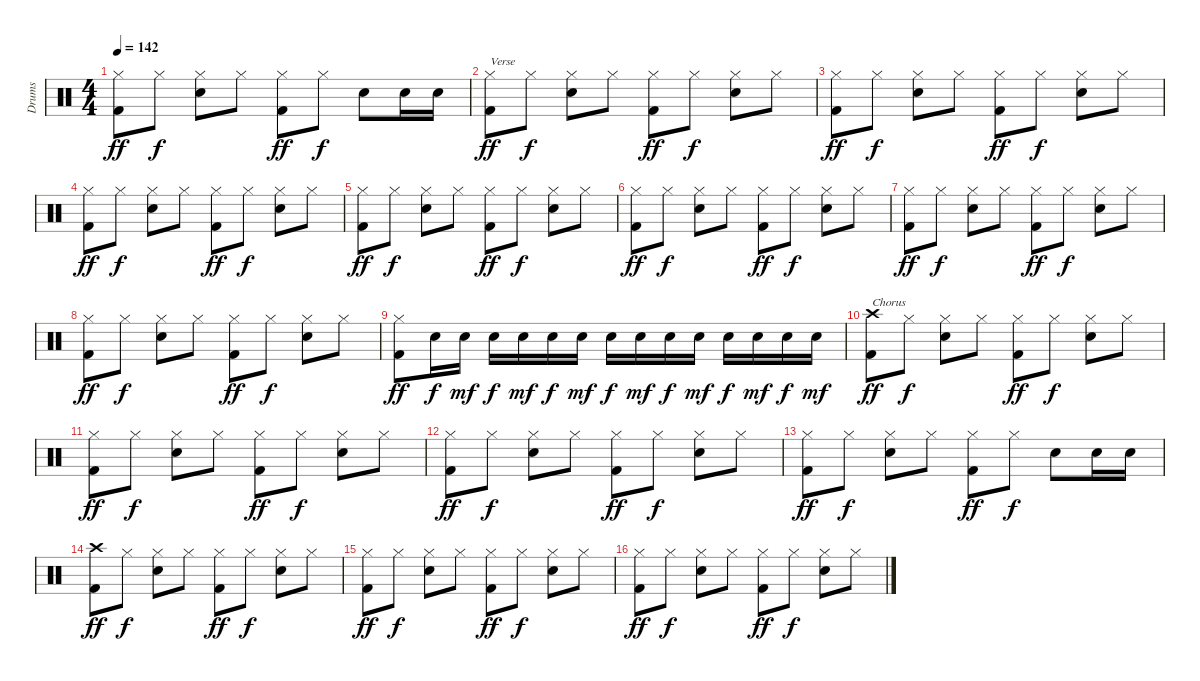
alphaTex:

\track ("Drums" "Drums") {instrument percussion}
\staff {score}
\articulation defaults
\ts (4 4)
\tempo 142
\clef neutral
\ks c
("Hi-Hat (closed)" "Kick (hit) 2").8{dy ff} "Hi-Hat (closed)".8{dy f} ("Hi-Hat (closed)" "Snare (hit) 2").8 "Hi-Hat (closed)".8 ("Hi-Hat (closed)" "Kick (hit) 2").8{dy ff} "Hi-Hat (closed)".8{dy f} "Snare (hit) 2".8 "Snare (hit) 2".16 "Snare (hit) 2".16 |
("Hi-Hat (closed)" "Kick (hit) 2").8{txt "Verse" dy ff} "Hi-Hat (closed)".8{dy f} ("Hi-Hat (closed)" "Snare (hit) 2").8 "Hi-Hat (closed)".8 ("Hi-Hat (closed)" "Kick (hit) 2").8{dy ff} "Hi-Hat (closed)".8{dy f} ("Hi-Hat (closed)" "Snare (hit) 2").8 "Hi-Hat (closed)".8 |
("Hi-Hat (closed)" "Kick (hit) 2").8{dy ff} "Hi-Hat (closed)".8{dy f} ("Hi-Hat (closed)" "Snare (hit) 2").8 "Hi-Hat (closed)".8 ("Hi-Hat (closed)" "Kick (hit) 2").8{dy ff} "Hi-Hat (closed)".8{dy f} ("Hi-Hat (closed)" "Snare (hit) 2").8 "Hi-Hat (closed)".8 |
("Hi-Hat (closed)" "Kick (hit) 2").8{dy ff} "Hi-Hat (closed)".8{dy f} ("Hi-Hat (closed)" "Snare (hit) 2").8 "Hi-Hat (closed)".8 ("Hi-Hat (closed)" "Kick (hit) 2").8{dy ff} "Hi-Hat (closed)".8{dy f} ("Hi-Hat (closed)" "Snare (hit) 2").8 "Hi-Hat (closed)".8 |
("Hi-Hat (closed)" "Kick (hit) 2").8{dy ff} "Hi-Hat (closed)".8{dy f} ("Hi-Hat (closed)" "Snare (hit) 2").8 "Hi-Hat (closed)".8 ("Hi-Hat (closed)" "Kick (hit) 2").8{dy ff} "Hi-Hat (closed)".8{dy f} ("Hi-Hat (closed)" "Snare (hit) 2").8 "Hi-Hat (closed)".8 |
("Hi-Hat (closed)" "Kick (hit) 2").8{dy ff} "Hi-Hat (closed)".8{dy f} ("Hi-Hat (closed)" "Snare (hit) 2").8 "Hi-Hat (closed)".8 ("Hi-Hat (closed)" "Kick (hit) 2").8{dy ff} "Hi-Hat (closed)".8{dy f} ("Hi-Hat (closed)" "Snare (hit) 2").8 "Hi-Hat (closed)".8 |
("Hi-Hat (closed)" "Kick (hit) 2").8{dy ff} "Hi-Hat (closed)".8{dy f} ("Hi-Hat (closed)" "Snare (hit) 2").8 "Hi-Hat (closed)".8 ("Hi-Hat (closed)" "Kick (hit) 2").8{dy ff} "Hi-Hat (closed)".8{dy f} ("Hi-Hat (closed)" "Snare (hit) 2").8 "Hi-Hat (closed)".8 |
("Hi-Hat (closed)" "Kick (hit) 2").8{dy ff} "Hi-Hat (closed)".8{dy f} ("Hi-Hat (closed)" "Snare (hit) 2").8 "Hi-Hat (closed)".8 ("Hi-Hat (closed)" "Kick (hit) 2").8{dy ff} "Hi-Hat (closed)".8{dy f} ("Hi-Hat (closed)" "Snare (hit) 2").8 "Hi-Hat (closed)".8 |
("Hi-Hat (closed)" "Kick (hit) 2").8{dy ff} "Snare (hit) 2".16{dy f} "Snare (hit) 2".16{dy mf} "Snare (hit) 2".16{dy f} "Snare (hit) 2".16{dy mf} "Snare (hit) 2".16{dy f} "Snare (hit) 2".16{dy mf} "Snare (hit) 2".16{dy f} "Snare (hit) 2".16{dy mf} "Snare (hit) 2".16{dy f} "Snare (hit) 2".16{dy mf} "Snare (hit) 2".16{dy f} "Snare (hit) 2".16{dy mf} "Snare (hit) 2".16{dy f} "Snare (hit) 2".16{dy mf} |
("Crash high (hit)" "Kick (hit) 2").8{txt "Chorus" dy ff} "Hi-Hat (closed)".8{dy f} ("Hi-Hat (closed)" "Snare (hit) 2").8 "Hi-Hat (closed)".8 ("Hi-Hat (closed)" "Kick (hit) 2").8{dy ff} "Hi-Hat (closed)".8{dy f} ("Hi-Hat (closed)" "Snare (hit) 2").8 "Hi-Hat (closed)".8 |
("Hi-Hat (closed)" "Kick (hit) 2").8{dy ff} "Hi-Hat (closed)".8{dy f} ("Hi-Hat (closed)" "Snare (hit) 2").8 "Hi-Hat (closed)".8 ("Hi-Hat (closed)" "Kick (hit) 2").8{dy ff} "Hi-Hat (closed)".8{dy f} ("Hi-Hat (closed)" "Snare (hit) 2").8 "Hi-Hat (closed)".8 |
("Hi-Hat (closed)" "Kick (hit) 2").8{dy ff} "Hi-Hat (closed)".8{dy f} ("Hi-Hat (closed)" "Snare (hit) 2").8 "Hi-Hat (closed)".8 ("Hi-Hat (closed)" "Kick (hit) 2").8{dy ff} "Hi-Hat (closed)".8{dy f} ("Hi-Hat (closed)" "Snare (hit) 2").8 "Hi-Hat (closed)".8 |
("Hi-Hat (closed)" "Kick (hit) 2").8{dy ff} "Hi-Hat (closed)".8{dy f} ("Hi-Hat (closed)" "Snare (hit) 2").8 "Hi-Hat (closed)".8 ("Hi-Hat (closed)" "Kick (hit) 2").8{dy ff} "Hi-Hat (closed)".8{dy f} "Snare (hit) 2".8 "Snare (hit) 2".16 "Snare (hit) 2".16 |
("Crash high (hit)" "Kick (hit) 2").8{dy ff} "Hi-Hat (closed)".8{dy f} ("Hi-Hat (closed)" "Snare (hit) 2").8 "Hi-Hat (closed)".8 ("Hi-Hat (closed)" "Kick (hit) 2").8{dy ff} "Hi-Hat (closed)".8{dy f} ("Hi-Hat (closed)" "Snare (hit) 2").8 "Hi-Hat (closed)".8 |
("Hi-Hat (closed)" "Kick (hit) 2").8{dy ff} "Hi-Hat (closed)".8{dy f} ("Hi-Hat (closed)" "Snare (hit) 2").8 "Hi-Hat (closed)".8 ("Hi-Hat (closed)" "Kick (hit) 2").8{dy ff} "Hi-Hat (closed)".8{dy f} ("Hi-Hat (closed)" "Snare (hit) 2").8 "Hi-Hat (closed)".8 |
("Hi-Hat (closed)" "Kick (hit) 2").8{dy ff} "Hi-Hat (closed)".8{dy f} ("Hi-Hat (closed)" "Snare (hit) 2").8 "Hi-Hat (closed)".8 ("Hi-Hat (closed)" "Kick (hit) 2").8{dy ff} "Hi-Hat (closed)".8{dy f} ("Hi-Hat (closed)" "Snare (hit) 2").8 "Hi-Hat (closed)".8
